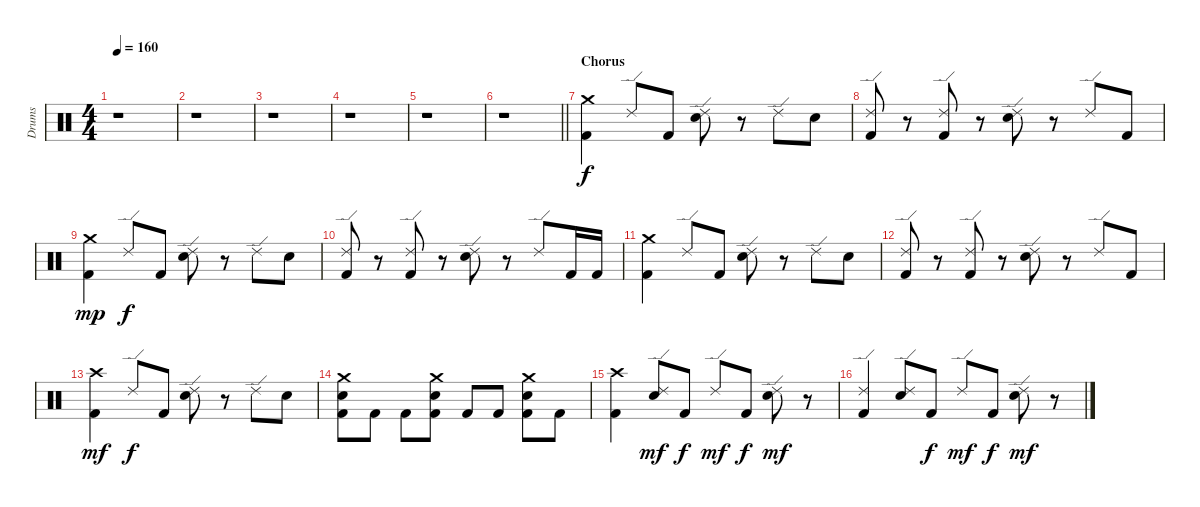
\track ("Drums" "Drums") {instrument percussion}
\staff {score}
\articulation defaults
\ts (4 4)
\tempo 160
\clef neutral
\ks c
r.1{dy f} |
r.1 |
r.1 |
r.1 |
r.1 |
\barLineRight lightlight
r.1 |
\section ("" "Chorus")
("Crash medium (hit)" "Kick (hit) 2").4 "Ride (edge) 2".8 "Kick (hit) 2".8 ("Ride (edge) 2" "Electric Snare (hit)").8 r.8 "Ride (edge) 2".8 "Electric Snare (hit)".8 |
("Ride (edge) 2" "Kick (hit) 2").8 r.8 ("Ride (edge) 2" "Kick (hit) 2").8 r.8 ("Ride (edge) 2" "Electric Snare (hit)").8 r.8 "Ride (edge) 2".8 "Kick (hit) 2".8 |
("Crash medium (hit)" "Kick (hit) 2").4{dy mp} "Ride (edge) 2".8{dy f} "Kick (hit) 2".8 ("Ride (edge) 2" "Electric Snare (hit)").8 r.8 "Ride (edge) 2".8 "Electric Snare (hit)".8 |
("Ride (edge) 2" "Kick (hit) 2").8 r.8 ("Ride (edge) 2" "Kick (hit) 2").8 r.8 ("Ride (edge) 2" "Electric Snare (hit)").8 r.8 "Ride (edge) 2".8 "Kick (hit) 2".16 "Kick (hit) 2".16 |
("Crash medium (hit)" "Kick (hit) 2").4 "Ride (edge) 2".8 "Kick (hit) 2".8 ("Ride (edge) 2" "Electric Snare (hit)").8 r.8 "Ride (edge) 2".8 "Electric Snare (hit)".8 |
("Ride (edge) 2" "Kick (hit) 2").8 r.8 ("Ride (edge) 2" "Kick (hit) 2").8 r.8 ("Ride (edge) 2" "Electric Snare (hit)").8 r.8 "Ride (edge) 2".8 "Kick (hit) 2".8 |
("Crash high (hit)" "Kick (hit) 2").4{dy mf} "Ride (edge) 2".8{dy f} "Kick (hit) 2".8 ("Ride (edge) 2" "Electric Snare (hit)").8 r.8 "Ride (edge) 2".8 "Electric Snare (hit)".8 |
("Crash medium (hit)" "Electric Snare (hit)" "Kick (hit) 2").8 "Kick (hit) 2".8 "Kick (hit) 2".8 ("Crash medium (hit)" "Electric Snare (hit)" "Kick (hit) 2").8 "Kick (hit) 2".8 "Kick (hit) 2".8 ("Crash medium (hit)" "Electric Snare (hit)" "Kick (hit) 2").8 "Kick (hit) 2".8 |
("Crash high (hit)" "Kick (hit) 2").4 ("Ride (edge) 2" "Electric Snare (hit)").8{dy mf} "Kick (hit) 2".8{dy f} "Ride (edge) 2".8{dy mf} "Kick (hit) 2".8{dy f} ("Ride (edge) 2" "Electric Snare (hit)").8{dy mf} r.8 |
("Ride (edge) 2" "Kick (hit) 2").4 ("Ride (edge) 2" "Electric Snare (hit)").8 "Kick (hit) 2".8{dy f} "Ride (edge) 2".8{dy mf} "Kick (hit) 2".8{dy f} ("Ride (edge) 2" "Electric Snare (hit)").8{dy mf} r.8
